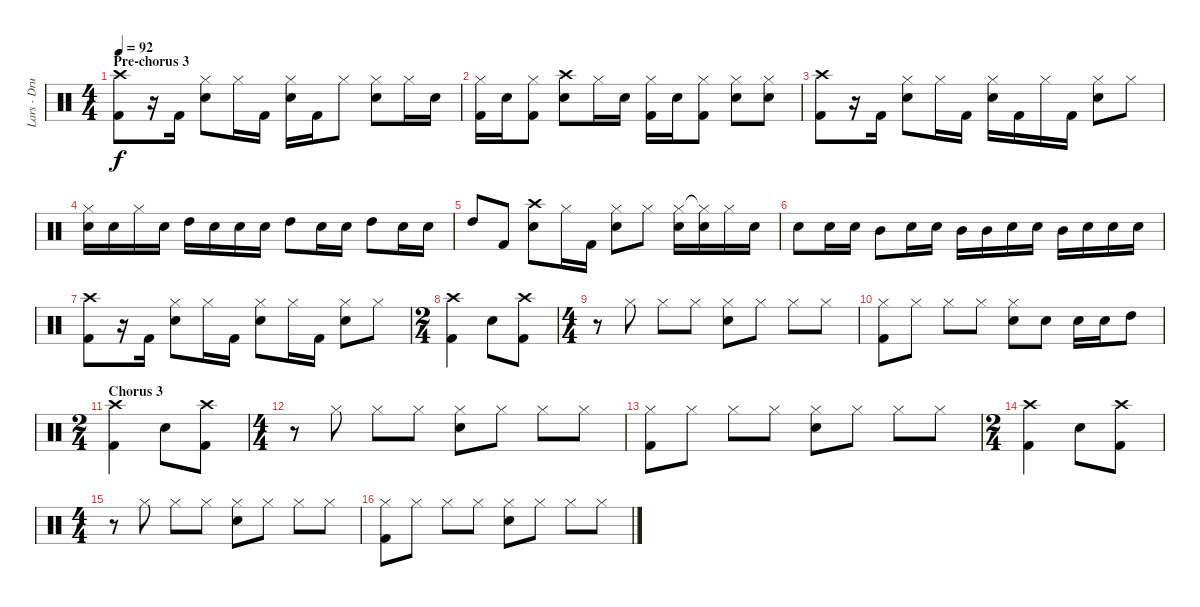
\track ("Lars - Drums" "Lars - Dru") {instrument percussion}
\staff {score}
\articulation defaults
\ts (4 4)
\section ("" "Pre-chorus 3")
\tempo 92
\clef neutral
\ks c
("Crash high (hit)" "Kick (hit) 2").8{dy f} r.16 "Kick (hit) 2".16 ("Hi-Hat (closed)" "Electric Snare (hit)").8 "Hi-Hat (closed)".16 "Kick (hit) 2".16 ("Hi-Hat (closed)" "Electric Snare (hit)").16 "Kick (hit) 2".16 "Hi-Hat (closed)".8 ("Hi-Hat (closed)" "Electric Snare (hit)").8 "Hi-Hat (closed)".16 "Electric Snare (hit)".16 |
("Hi-Hat (closed)" "Kick (hit) 2").16 "Electric Snare (hit)".16 ("Hi-Hat (closed)" "Kick (hit) 2").8 ("Crash high (hit)" "Electric Snare (hit)").8 "Hi-Hat (closed)".16 "Electric Snare (hit)".16 ("Hi-Hat (closed)" "Kick (hit) 2").16 "Electric Snare (hit)".16 ("Hi-Hat (closed)" "Kick (hit) 2").8 ("Hi-Hat (closed)" "Electric Snare (hit)").8 ("Hi-Hat (closed)" "Electric Snare (hit)").8 |
("Crash high (hit)" "Kick (hit) 2").8 r.16 "Kick (hit) 2".16 ("Hi-Hat (closed)" "Electric Snare (hit)").8 "Hi-Hat (closed)".16 "Kick (hit) 2".16 ("Hi-Hat (closed)" "Electric Snare (hit)").16 "Kick (hit) 2".16 "Hi-Hat (closed)".16 "Kick (hit) 2".16 ("Hi-Hat (closed)" "Electric Snare (hit)").8 "Hi-Hat (closed)".8 |
("Hi-Hat (closed)" "Electric Snare (hit)").16 "Electric Snare (hit)".16 "Hi-Hat (closed)".16 "Electric Snare (hit)".16 "High Tom (hit)".16 "Electric Snare (hit)".16 "Electric Snare (hit)".16 "Electric Snare (hit)".16 "High Tom (hit)".8 "Electric Snare (hit)".16 "Electric Snare (hit)".16 "High Tom (hit)".8 "Electric Snare (hit)".16 "Electric Snare (hit)".16 |
"High Tom (hit)".8 "Kick (hit) 2".8 ("Crash high (hit)" "Electric Snare (hit)").8 "Hi-Hat (closed)".16 "Kick (hit) 2".16 ("Hi-Hat (closed)" "Electric Snare (hit)").8 "Hi-Hat (closed)".8 ("Hi-Hat (closed)" "Electric Snare (hit)").16 ("Hi-Hat (closed)"{t} "Electric Snare (hit)").16 "Hi-Hat (closed)".16 "Electric Snare (hit)".16 |
"Electric Snare (hit)".8 "Electric Snare (hit)".16 "Electric Snare (hit)".16 "Mid Tom (hit)".8 "Electric Snare (hit)".16 "Electric Snare (hit)".16 "Mid Tom (hit)".16 "Mid Tom (hit)".16 "Electric Snare (hit)".16 "Electric Snare (hit)".16 "Mid Tom (hit)".16 "Electric Snare (hit)".16 "Electric Snare (hit)".16 "Electric Snare (hit)".16 |
("Crash high (hit)" "Kick (hit) 2").8 r.16 "Kick (hit) 2".16 ("Hi-Hat (closed)" "Electric Snare (hit)").8 "Hi-Hat (closed)".16 "Kick (hit) 2".16 ("Hi-Hat (closed)" "Electric Snare (hit)").8 "Hi-Hat (closed)".16 "Kick (hit) 2".16 ("Hi-Hat (closed)" "Electric Snare (hit)").8 "Hi-Hat (closed)".8 |
\ts (2 4)
("Crash high (hit)" "Kick (hit) 2").4 "Electric Snare (hit)".8 ("Crash high (hit)" "Kick (hit) 2").8 |
\ts (4 4)
r.8 "Hi-Hat (closed)".8 "Hi-Hat (closed)".8 "Hi-Hat (closed)".8 ("Hi-Hat (closed)" "Electric Snare (hit)").8 "Hi-Hat (closed)".8 "Hi-Hat (closed)".8 "Hi-Hat (closed)".8 |
("Hi-Hat (closed)" "Kick (hit) 2").8 "Hi-Hat (closed)".8 "Hi-Hat (closed)".8 "Hi-Hat (closed)".8 ("Hi-Hat (closed)" "Electric Snare (hit)").8 "Electric Snare (hit)".8 "Electric Snare (hit)".16 "Electric Snare (hit)".16 "High Tom (hit)".8 |
\ts (2 4)
\section ("" "Chorus 3")
("Crash high (hit)" "Kick (hit) 2").4 "Electric Snare (hit)".8 ("Crash high (hit)" "Kick (hit) 2").8 |
\ts (4 4)
r.8 "Hi-Hat (closed)".8 "Hi-Hat (closed)".8 "Hi-Hat (closed)".8 ("Hi-Hat (closed)" "Electric Snare (hit)").8 "Hi-Hat (closed)".8 "Hi-Hat (closed)".8 "Hi-Hat (closed)".8 |
("Hi-Hat (closed)" "Kick (hit) 2").8 "Hi-Hat (closed)".8 "Hi-Hat (closed)".8 "Hi-Hat (closed)".8 ("Hi-Hat (closed)" "Electric Snare (hit)").8 "Hi-Hat (closed)".8 "Hi-Hat (closed)".8 "Hi-Hat (closed)".8 |
\ts (2 4)
("Crash high (hit)" "Kick (hit) 2").4 "Electric Snare (hit)".8 ("Crash high (hit)" "Kick (hit) 2").8 |
\ts (4 4)
r.8 "Hi-Hat (closed)".8 "Hi-Hat (closed)".8 "Hi-Hat (closed)".8 ("Hi-Hat (closed)" "Electric Snare (hit)").8 "Hi-Hat (closed)".8 "Hi-Hat (closed)".8 "Hi-Hat (closed)".8 |
("Hi-Hat (closed)" "Kick (hit) 2").8 "Hi-Hat (closed)".8 "Hi-Hat (closed)".8 "Hi-Hat (closed)".8 ("Hi-Hat (closed)" "Electric Snare (hit)").8 "Hi-Hat (closed)".8 "Hi-Hat (closed)".8 "Hi-Hat (closed)".8
